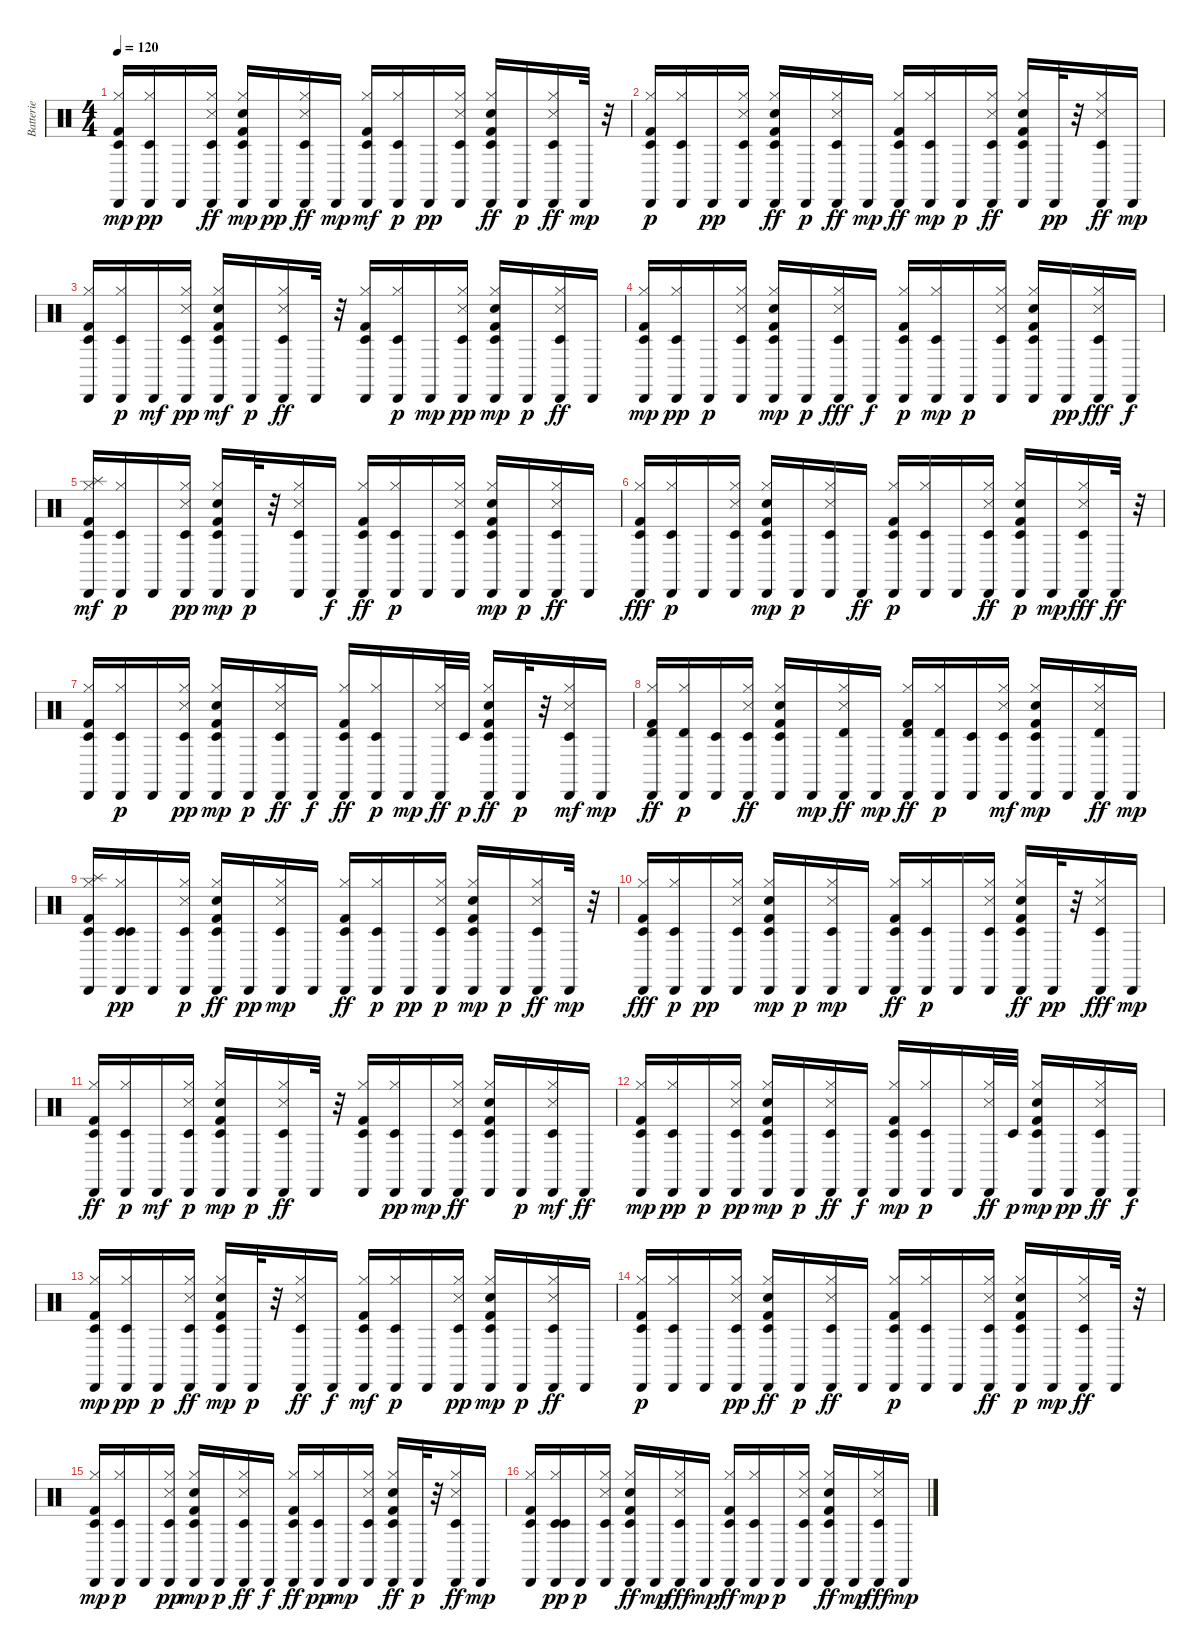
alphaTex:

\track ("Batterie" "Batterie") {instrument percussion}
\staff {score}
\articulation defaults
\ts (4 4)
\tempo 120
\clef neutral
\ks c
("Kick (hit) 2" "Cabasa (hit)" "Hi-Hat (closed)" "Timbale low (hit)").16{dy mp} ("Hi-Hat (closed)" "Cabasa (hit)" "Timbale low (hit)").16{dy pp} "Cabasa (hit)".16 ("Cabasa (hit)" "Snare (side stick) 3" "Timbale low (hit)" "Hi-Hat (closed)").16{dy ff} ("Kick (hit) 2" "Timbale low (hit)" "Cabasa (hit)" "Hi-Hat (closed)" "Hand Clap (hit)").16{dy mp} "Cabasa (hit)".16{dy pp} ("Cabasa (hit)" "Snare (side stick) 3" "Hi-Hat (closed)" "Timbale low (hit)").16{dy ff} "Cabasa (hit)".16{dy mp} ("Kick (hit) 2" "Cabasa (hit)" "Timbale low (hit)" "Hi-Hat (closed)").16{dy mf} ("Hi-Hat (closed)" "Timbale low (hit)" "Cabasa (hit)").16{dy p} "Cabasa (hit)".16{dy pp} ("Cabasa (hit)" "Snare (side stick) 3" "Hi-Hat (closed)" "Timbale low (hit)").16 ("Timbale low (hit)" "Hi-Hat (closed)" "Cabasa (hit)" "Kick (hit) 2" "Hand Clap (hit)").16{dy ff} "Cabasa (hit)".16{dy p} ("Hi-Hat (closed)" "Cabasa (hit)" "Timbale low (hit)" "Snare (side stick) 3").16{dy ff} "Cabasa (hit)".32{dy mp} r.32 |
("Kick (hit) 2" "Cabasa (hit)" "Hi-Hat (closed)" "Timbale low (hit)").16{dy p} ("Hi-Hat (closed)" "Timbale low (hit)" "Cabasa (hit)").16 "Cabasa (hit)".16{dy pp} ("Cabasa (hit)" "Snare (side stick) 3" "Hi-Hat (closed)" "Timbale low (hit)").16 ("Timbale low (hit)" "Hi-Hat (closed)" "Cabasa (hit)" "Kick (hit) 2" "Hand Clap (hit)").16{dy ff} "Cabasa (hit)".16{dy p} ("Timbale low (hit)" "Cabasa (hit)" "Snare (side stick) 3" "Hi-Hat (closed)").16{dy ff} "Cabasa (hit)".16{dy mp} ("Timbale low (hit)" "Cabasa (hit)" "Kick (hit) 2" "Hi-Hat (closed)").16{dy ff} ("Timbale low (hit)" "Hi-Hat (closed)" "Cabasa (hit)").16{dy mp} "Cabasa (hit)".16{dy p} ("Cabasa (hit)" "Snare (side stick) 3" "Timbale low (hit)" "Hi-Hat (closed)").16{dy ff} ("Timbale low (hit)" "Hi-Hat (closed)" "Kick (hit) 2" "Cabasa (hit)" "Hand Clap (hit)").16 "Cabasa (hit)".32{dy pp} r.32 ("Cabasa (hit)" "Timbale low (hit)" "Hi-Hat (closed)" "Snare (side stick) 3").16{dy ff} "Cabasa (hit)".16{dy mp} |
("Kick (hit) 2" "Cabasa (hit)" "Hi-Hat (closed)" "Timbale low (hit)").16 ("Hi-Hat (closed)" "Timbale low (hit)" "Cabasa (hit)").16{dy p} "Cabasa (hit)".16{dy mf} ("Cabasa (hit)" "Snare (side stick) 3" "Hi-Hat (closed)" "Timbale low (hit)").16{dy pp} ("Timbale low (hit)" "Kick (hit) 2" "Hi-Hat (closed)" "Cabasa (hit)" "Hand Clap (hit)").16{dy mf} "Cabasa (hit)".16{dy p} ("Cabasa (hit)" "Timbale low (hit)" "Snare (side stick) 3" "Hi-Hat (closed)").16{dy ff} "Cabasa (hit)".32 r.32 ("Cabasa (hit)" "Timbale low (hit)" "Kick (hit) 2" "Hi-Hat (closed)").16 ("Hi-Hat (closed)" "Cabasa (hit)" "Timbale low (hit)").16{dy p} "Cabasa (hit)".16{dy mp} ("Snare (side stick) 3" "Cabasa (hit)" "Timbale low (hit)" "Hi-Hat (closed)").16{dy pp} ("Timbale low (hit)" "Cabasa (hit)" "Kick (hit) 2" "Hand Clap (hit)" "Hi-Hat (closed)").16{dy mp} "Cabasa (hit)".16{dy p} ("Cabasa (hit)" "Hi-Hat (closed)" "Snare (side stick) 3" "Timbale low (hit)").16{dy ff} "Cabasa (hit)".16 |
("Kick (hit) 2" "Cabasa (hit)" "Hi-Hat (closed)" "Timbale low (hit)").16{dy mp} ("Hi-Hat (closed)" "Cabasa (hit)" "Timbale low (hit)").16{dy pp} "Cabasa (hit)".16{dy p} ("Snare (side stick) 3" "Cabasa (hit)" "Hi-Hat (closed)" "Timbale low (hit)").16 ("Timbale low (hit)" "Hi-Hat (closed)" "Kick (hit) 2" "Cabasa (hit)" "Hand Clap (hit)").16{dy mp} "Cabasa (hit)".16{dy p} ("Timbale low (hit)" "Hi-Hat (closed)" "Cabasa (hit)" "Snare (side stick) 3").16{dy fff} "Cabasa (hit)".16{dy f} ("Timbale low (hit)" "Kick (hit) 2" "Hi-Hat (closed)" "Cabasa (hit)").16{dy p} ("Hi-Hat (closed)" "Timbale low (hit)" "Cabasa (hit)").16{dy mp} "Cabasa (hit)".16{dy p} ("Hi-Hat (closed)" "Cabasa (hit)" "Snare (side stick) 3" "Timbale low (hit)").16 ("Hi-Hat (closed)" "Timbale low (hit)" "Kick (hit) 2" "Cabasa (hit)" "Hand Clap (hit)").16 "Cabasa (hit)".16{dy pp} ("Cabasa (hit)" "Hi-Hat (closed)" "Timbale low (hit)" "Snare (side stick) 3").16{dy fff} "Cabasa (hit)".16{dy f} |
("Cabasa (hit)" "Hi-Hat (closed)" "Splash (hit)" "Kick (hit) 2" "Timbale low (hit)").16{dy mf} ("Hi-Hat (closed)" "Cabasa (hit)" "Timbale low (hit)").16{dy p} "Cabasa (hit)".16 ("Cabasa (hit)" "Snare (side stick) 3" "Hi-Hat (closed)" "Timbale low (hit)").16{dy pp} ("Hand Clap (hit)" "Hi-Hat (closed)" "Cabasa (hit)" "Kick (hit) 2" "Timbale low (hit)").16{dy mp} "Cabasa (hit)".32{dy p} r.32 ("Cabasa (hit)" "Snare (side stick) 3" "Hi-Hat (closed)" "Timbale low (hit)").16 "Cabasa (hit)".16{dy f} ("Kick (hit) 2" "Timbale low (hit)" "Cabasa (hit)" "Hi-Hat (closed)").16{dy ff} ("Hi-Hat (closed)" "Cabasa (hit)" "Timbale low (hit)").16{dy p} "Cabasa (hit)".16 ("Snare (side stick) 3" "Cabasa (hit)" "Timbale low (hit)" "Hi-Hat (closed)").16 ("Timbale low (hit)" "Hand Clap (hit)" "Kick (hit) 2" "Cabasa (hit)" "Hi-Hat (closed)").16{dy mp} "Cabasa (hit)".16{dy p} ("Timbale low (hit)" "Snare (side stick) 3" "Cabasa (hit)" "Hi-Hat (closed)").16{dy ff} "Cabasa (hit)".16 |
("Timbale low (hit)" "Cabasa (hit)" "Kick (hit) 2" "Hi-Hat (closed)").16{dy fff} ("Hi-Hat (closed)" "Timbale low (hit)" "Cabasa (hit)").16{dy p} "Cabasa (hit)".16 ("Cabasa (hit)" "Snare (side stick) 3" "Timbale low (hit)" "Hi-Hat (closed)").16 ("Timbale low (hit)" "Kick (hit) 2" "Hi-Hat (closed)" "Cabasa (hit)" "Hand Clap (hit)").16{dy mp} "Cabasa (hit)".16{dy p} ("Cabasa (hit)" "Timbale low (hit)" "Hi-Hat (closed)" "Snare (side stick) 3").16 "Cabasa (hit)".16{dy ff} ("Timbale low (hit)" "Kick (hit) 2" "Hi-Hat (closed)" "Cabasa (hit)").16{dy p} ("Timbale low (hit)" "Hi-Hat (closed)" "Cabasa (hit)").16 "Cabasa (hit)".16 ("Timbale low (hit)" "Hi-Hat (closed)" "Cabasa (hit)" "Snare (side stick) 3").16{dy ff} ("Timbale low (hit)" "Hi-Hat (closed)" "Kick (hit) 2" "Cabasa (hit)" "Hand Clap (hit)").16{dy p} "Cabasa (hit)".16{dy mp} ("Cabasa (hit)" "Timbale low (hit)" "Hi-Hat (closed)" "Snare (side stick) 3").16{dy fff} "Cabasa (hit)".32{dy ff} r.32 |
("Kick (hit) 2" "Cabasa (hit)" "Timbale low (hit)" "Hi-Hat (closed)").16 ("Hi-Hat (closed)" "Timbale low (hit)" "Cabasa (hit)").16{dy p} "Cabasa (hit)".16 ("Snare (side stick) 3" "Cabasa (hit)" "Hi-Hat (closed)" "Timbale low (hit)").16{dy pp} ("Kick (hit) 2" "Hi-Hat (closed)" "Timbale low (hit)" "Cabasa (hit)" "Hand Clap (hit)").16{dy mp} "Cabasa (hit)".16{dy p} ("Snare (side stick) 3" "Cabasa (hit)" "Timbale low (hit)" "Hi-Hat (closed)").16{dy ff} "Cabasa (hit)".16{dy f} ("Kick (hit) 2" "Cabasa (hit)" "Timbale low (hit)" "Hi-Hat (closed)").16{dy ff} ("Hi-Hat (closed)" "Cabasa (hit)" "Timbale low (hit)").16{dy p} "Cabasa (hit)".16{dy mp} ("Cabasa (hit)" "Snare (side stick) 3" "Hi-Hat (closed)").32{dy ff} "Timbale low (hit)".32{dy p} ("Hi-Hat (closed)" "Kick (hit) 2" "Hand Clap (hit)" "Timbale low (hit)" "Cabasa (hit)").16{dy ff} "Cabasa (hit)".32{dy p} r.32 ("Cabasa (hit)" "Snare (side stick) 3" "Hi-Hat (closed)" "Timbale low (hit)").16{dy mf} "Cabasa (hit)".16{dy mp} |
("Timbale high (hit)" "Cabasa (hit)" "Kick (hit) 2" "Hi-Hat (closed)").16{dy ff} ("Hi-Hat (closed)" "Cabasa (hit)" "Timbale high (hit)").16{dy p} ("Timbale low (hit)" "Cabasa (hit)").16 ("Cabasa (hit)" "Snare (side stick) 3" "Timbale low (hit)" "Hi-Hat (closed)").16{dy ff} ("Hi-Hat (closed)" "Timbale low (hit)" "Kick (hit) 2" "Cabasa (hit)" "Hand Clap (hit)").16 "Cabasa (hit)".16{dy mp} ("Cabasa (hit)" "Timbale high (hit)" "Snare (side stick) 3" "Hi-Hat (closed)").16{dy ff} "Cabasa (hit)".16{dy mp} ("Timbale high (hit)" "Cabasa (hit)" "Kick (hit) 2" "Hi-Hat (closed)").16{dy ff} ("Cabasa (hit)" "Hi-Hat (closed)" "Timbale high (hit)").16{dy p} ("Timbale low (hit)" "Cabasa (hit)").16 ("Cabasa (hit)" "Timbale low (hit)" "Snare (side stick) 3" "Hi-Hat (closed)").16{dy mf} ("Timbale low (hit)" "Cabasa (hit)" "Kick (hit) 2" "Hi-Hat (closed)" "Hand Clap (hit)").16{dy mp} "Cabasa (hit)".16 ("Timbale high (hit)" "Cabasa (hit)" "Hi-Hat (closed)" "Snare (side stick) 3").16{dy ff} "Cabasa (hit)".16{dy mp} |
("Hi-Hat (closed)" "Splash (hit)" "Kick (hit) 2" "Cabasa (hit)" "Timbale low (hit)").16 ("Hi-Hat (closed)" "Cabasa (hit)" "Timbale low (hit)" "Timbale low (hit)").16{dy pp} "Cabasa (hit)".16 ("Snare (side stick) 3" "Cabasa (hit)" "Hi-Hat (closed)" "Timbale low (hit)").16{dy p} ("Timbale low (hit)" "Hand Clap (hit)" "Hi-Hat (closed)" "Kick (hit) 2" "Cabasa (hit)").16{dy ff} "Cabasa (hit)".16{dy pp} ("Timbale low (hit)" "Snare (side stick) 3" "Cabasa (hit)" "Hi-Hat (closed)").16{dy mp} "Cabasa (hit)".16 ("Timbale low (hit)" "Kick (hit) 2" "Cabasa (hit)" "Hi-Hat (closed)").16{dy ff} ("Timbale low (hit)" "Hi-Hat (closed)" "Cabasa (hit)").16{dy p} "Cabasa (hit)".16{dy pp} ("Snare (side stick) 3" "Cabasa (hit)" "Timbale low (hit)" "Hi-Hat (closed)").16{dy p} ("Timbale low (hit)" "Hand Clap (hit)" "Cabasa (hit)" "Kick (hit) 2" "Hi-Hat (closed)").16{dy mp} "Cabasa (hit)".16{dy p} ("Cabasa (hit)" "Snare (side stick) 3" "Timbale low (hit)" "Hi-Hat (closed)").16{dy ff} "Cabasa (hit)".32{dy mp} r.32 |
("Cabasa (hit)" "Kick (hit) 2" "Timbale low (hit)" "Hi-Hat (closed)").16{dy fff} ("Hi-Hat (closed)" "Cabasa (hit)" "Timbale low (hit)").16{dy p} "Cabasa (hit)".16{dy pp} ("Cabasa (hit)" "Snare (side stick) 3" "Hi-Hat (closed)" "Timbale low (hit)").16 ("Cabasa (hit)" "Kick (hit) 2" "Hi-Hat (closed)" "Hand Clap (hit)" "Timbale low (hit)").16{dy mp} "Cabasa (hit)".16{dy p} ("Cabasa (hit)" "Hi-Hat (closed)" "Snare (side stick) 3" "Timbale low (hit)").16{dy mp} "Cabasa (hit)".16 ("Kick (hit) 2" "Timbale low (hit)" "Cabasa (hit)" "Hi-Hat (closed)").16{dy ff} ("Hi-Hat (closed)" "Cabasa (hit)" "Timbale low (hit)").16{dy p} "Cabasa (hit)".16 ("Cabasa (hit)" "Hi-Hat (closed)" "Snare (side stick) 3" "Timbale low (hit)").16 ("Timbale low (hit)" "Hi-Hat (closed)" "Cabasa (hit)" "Kick (hit) 2" "Hand Clap (hit)").16{dy ff} "Cabasa (hit)".32{dy pp} r.32 ("Timbale low (hit)" "Cabasa (hit)" "Hi-Hat (closed)" "Snare (side stick) 3").16{dy fff} "Cabasa (hit)".16{dy mp} |
("Kick (hit) 2" "Timbale low (hit)" "Cabasa (hit)" "Hi-Hat (closed)").16{dy ff} ("Hi-Hat (closed)" "Timbale low (hit)" "Cabasa (hit)").16{dy p} "Cabasa (hit)".16{dy mf} ("Cabasa (hit)" "Snare (side stick) 3" "Timbale low (hit)" "Hi-Hat (closed)").16{dy p} ("Timbale low (hit)" "Kick (hit) 2" "Cabasa (hit)" "Hi-Hat (closed)" "Hand Clap (hit)").16{dy mp} "Cabasa (hit)".16{dy p} ("Cabasa (hit)" "Timbale low (hit)" "Snare (side stick) 3" "Hi-Hat (closed)").16{dy ff} "Cabasa (hit)".32 r.32 ("Timbale low (hit)" "Cabasa (hit)" "Kick (hit) 2" "Hi-Hat (closed)").16 ("Timbale low (hit)" "Hi-Hat (closed)" "Cabasa (hit)").16{dy pp} "Cabasa (hit)".16{dy mp} ("Cabasa (hit)" "Timbale low (hit)" "Snare (side stick) 3" "Hi-Hat (closed)").16{dy ff} ("Timbale low (hit)" "Hi-Hat (closed)" "Cabasa (hit)" "Kick (hit) 2" "Hand Clap (hit)").16 "Cabasa (hit)".16{dy p} ("Cabasa (hit)" "Timbale low (hit)" "Snare (side stick) 3" "Hi-Hat (closed)").16{dy mf} "Cabasa (hit)".16{dy ff} |
("Cabasa (hit)" "Kick (hit) 2" "Timbale low (hit)" "Hi-Hat (closed)").16{dy mp} ("Hi-Hat (closed)" "Timbale low (hit)" "Cabasa (hit)").16{dy pp} "Cabasa (hit)".16{dy p} ("Cabasa (hit)" "Snare (side stick) 3" "Hi-Hat (closed)" "Timbale low (hit)").16{dy pp} ("Hi-Hat (closed)" "Timbale low (hit)" "Kick (hit) 2" "Cabasa (hit)" "Hand Clap (hit)").16{dy mp} "Cabasa (hit)".16{dy p} ("Cabasa (hit)" "Timbale low (hit)" "Snare (side stick) 3" "Hi-Hat (closed)").16{dy ff} "Cabasa (hit)".16{dy f} ("Cabasa (hit)" "Kick (hit) 2" "Timbale low (hit)" "Hi-Hat (closed)").16{dy mp} ("Cabasa (hit)" "Hi-Hat (closed)" "Timbale low (hit)").16{dy p} "Cabasa (hit)".16 ("Cabasa (hit)" "Snare (side stick) 3" "Hi-Hat (closed)").32{dy ff} "Timbale low (hit)".32{dy p} ("Cabasa (hit)" "Kick (hit) 2" "Timbale low (hit)" "Hi-Hat (closed)" "Hand Clap (hit)").16{dy mp} "Cabasa (hit)".16{dy pp} ("Cabasa (hit)" "Hi-Hat (closed)" "Snare (side stick) 3" "Timbale low (hit)").16{dy ff} "Cabasa (hit)".16{dy f} |
("Cabasa (hit)" "Kick (hit) 2" "Hi-Hat (closed)" "Timbale low (hit)").16{dy mp} ("Hi-Hat (closed)" "Cabasa (hit)" "Timbale low (hit)").16{dy pp} "Cabasa (hit)".16{dy p} ("Cabasa (hit)" "Snare (side stick) 3" "Timbale low (hit)" "Hi-Hat (closed)").16{dy ff} ("Kick (hit) 2" "Timbale low (hit)" "Cabasa (hit)" "Hi-Hat (closed)" "Hand Clap (hit)").16{dy mp} "Cabasa (hit)".32{dy p} r.32 ("Cabasa (hit)" "Snare (side stick) 3" "Hi-Hat (closed)" "Timbale low (hit)").16{dy ff} "Cabasa (hit)".16{dy f} ("Kick (hit) 2" "Timbale low (hit)" "Cabasa (hit)" "Hi-Hat (closed)").16{dy mf} ("Hi-Hat (closed)" "Timbale low (hit)" "Cabasa (hit)").16{dy p} "Cabasa (hit)".16 ("Cabasa (hit)" "Snare (side stick) 3" "Hi-Hat (closed)" "Timbale low (hit)").16{dy pp} ("Timbale low (hit)" "Hi-Hat (closed)" "Kick (hit) 2" "Cabasa (hit)" "Hand Clap (hit)").16{dy mp} "Cabasa (hit)".16{dy p} ("Hi-Hat (closed)" "Cabasa (hit)" "Timbale low (hit)" "Snare (side stick) 3").16{dy ff} "Cabasa (hit)".16 |
("Kick (hit) 2" "Cabasa (hit)" "Hi-Hat (closed)" "Timbale low (hit)").16{dy p} ("Hi-Hat (closed)" "Timbale low (hit)" "Cabasa (hit)").16 "Cabasa (hit)".16 ("Cabasa (hit)" "Snare (side stick) 3" "Hi-Hat (closed)" "Timbale low (hit)").16{dy pp} ("Timbale low (hit)" "Hi-Hat (closed)" "Cabasa (hit)" "Kick (hit) 2" "Hand Clap (hit)").16{dy ff} "Cabasa (hit)".16{dy p} ("Timbale low (hit)" "Cabasa (hit)" "Snare (side stick) 3" "Hi-Hat (closed)").16{dy ff} "Cabasa (hit)".16 ("Timbale low (hit)" "Kick (hit) 2" "Cabasa (hit)" "Hi-Hat (closed)").16{dy p} ("Timbale low (hit)" "Hi-Hat (closed)" "Cabasa (hit)").16 "Cabasa (hit)".16 ("Cabasa (hit)" "Snare (side stick) 3" "Timbale low (hit)" "Hi-Hat (closed)").16{dy ff} ("Timbale low (hit)" "Hi-Hat (closed)" "Kick (hit) 2" "Cabasa (hit)" "Hand Clap (hit)").16{dy p} "Cabasa (hit)".16{dy mp} ("Cabasa (hit)" "Timbale low (hit)" "Hi-Hat (closed)" "Snare (side stick) 3").16{dy ff} "Cabasa (hit)".32 r.32 |
("Kick (hit) 2" "Hi-Hat (closed)" "Cabasa (hit)" "Timbale low (hit)").16{dy mp} ("Hi-Hat (closed)" "Timbale low (hit)" "Cabasa (hit)").16{dy p} "Cabasa (hit)".16 ("Cabasa (hit)" "Snare (side stick) 3" "Hi-Hat (closed)" "Timbale low (hit)").16{dy pp} ("Timbale low (hit)" "Kick (hit) 2" "Hi-Hat (closed)" "Cabasa (hit)" "Hand Clap (hit)").16{dy mp} "Cabasa (hit)".16{dy p} ("Timbale low (hit)" "Cabasa (hit)" "Snare (side stick) 3" "Hi-Hat (closed)").16{dy ff} "Cabasa (hit)".16{dy f} ("Timbale low (hit)" "Kick (hit) 2" "Cabasa (hit)" "Hi-Hat (closed)").16{dy ff} ("Hi-Hat (closed)" "Timbale low (hit)" "Cabasa (hit)").16{dy pp} "Cabasa (hit)".16{dy mp} ("Snare (side stick) 3" "Timbale low (hit)" "Cabasa (hit)" "Hi-Hat (closed)").16 ("Timbale low (hit)" "Kick (hit) 2" "Hand Clap (hit)" "Hi-Hat (closed)" "Cabasa (hit)").16{dy ff} "Cabasa (hit)".32{dy p} r.32 ("Cabasa (hit)" "Hi-Hat (closed)" "Snare (side stick) 3" "Timbale low (hit)").16{dy ff} "Cabasa (hit)".16{dy mp} |
("Kick (hit) 2" "Cabasa (hit)" "Hi-Hat (closed)" "Timbale low (hit)").16 ("Hi-Hat (closed)" "Cabasa (hit)" "Timbale low (hit)" "Timbale low (hit)").16{dy pp} "Cabasa (hit)".16{dy p} ("Snare (side stick) 3" "Cabasa (hit)" "Hi-Hat (closed)" "Timbale low (hit)").16 ("Timbale low (hit)" "Hi-Hat (closed)" "Kick (hit) 2" "Cabasa (hit)" "Hand Clap (hit)").16{dy ff} "Cabasa (hit)".16{dy mp} ("Timbale low (hit)" "Hi-Hat (closed)" "Cabasa (hit)" "Snare (side stick) 3").16{dy fff} "Cabasa (hit)".16{dy mp} ("Timbale low (hit)" "Kick (hit) 2" "Hi-Hat (closed)" "Cabasa (hit)").16{dy ff} ("Hi-Hat (closed)" "Timbale low (hit)" "Cabasa (hit)").16{dy mp} "Cabasa (hit)".16{dy p} ("Hi-Hat (closed)" "Cabasa (hit)" "Snare (side stick) 3" "Timbale low (hit)").16 ("Hi-Hat (closed)" "Timbale low (hit)" "Kick (hit) 2" "Cabasa (hit)" "Hand Clap (hit)").16{dy ff} "Cabasa (hit)".16{dy mp} ("Cabasa (hit)" "Hi-Hat (closed)" "Timbale low (hit)" "Snare (side stick) 3").16{dy fff} "Cabasa (hit)".16{dy mp}
